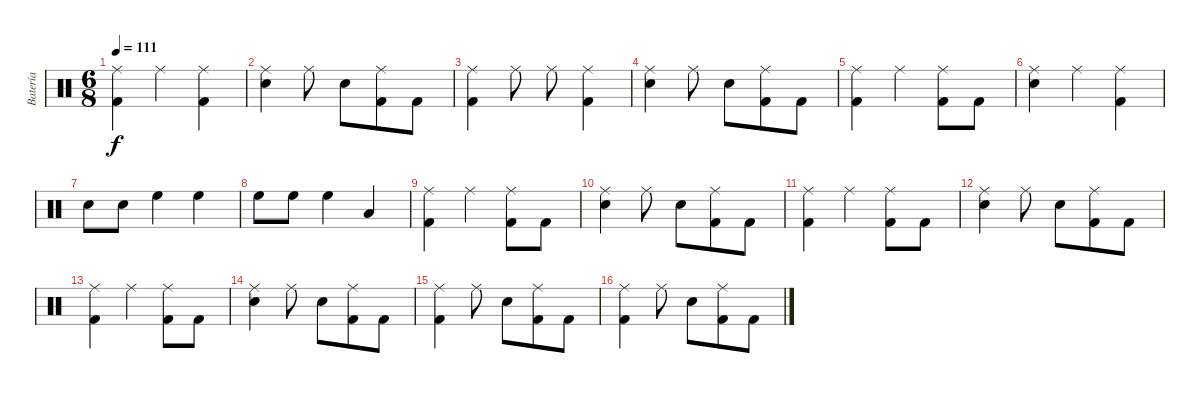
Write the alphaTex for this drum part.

\track ("Batería" "Batería") {instrument percussion}
\staff {score}
\articulation defaults
\ts (6 8)
\tempo 111
\clef neutral
\ks c
("Ride (middle)" "Kick (hit) 2").4{dy f} "Ride (middle)".4 ("Ride (middle)" "Kick (hit) 2").4 |
("Ride (middle)" "Snare (hit) 2").4 "Ride (middle)".8 "Snare (hit) 2".8 ("Ride (middle)" "Kick (hit) 2").8 "Kick (hit) 2".8 |
("Ride (middle)" "Kick (hit) 2").4 "Ride (middle)".8 "Ride (middle)".8 ("Ride (middle)" "Kick (hit) 2").4 |
("Ride (middle)" "Snare (hit) 2").4 "Ride (middle)".8 "Snare (hit) 2".8 ("Ride (middle)" "Kick (hit) 2").8 "Kick (hit) 2".8 |
("Ride (middle)" "Kick (hit) 2").4 "Ride (middle)".4 ("Ride (middle)" "Kick (hit) 2").8 "Kick (hit) 2".8 |
("Ride (middle)" "Snare (hit) 2").4 "Ride (middle)".4 ("Ride (middle)" "Kick (hit) 2").4 |
"Snare (hit) 2".8 "Snare (hit) 2".8 "High Floor Tom (hit)".4 "High Floor Tom (hit)".4 |
"High Floor Tom (hit)".8 "High Floor Tom (hit)".8 "High Floor Tom (hit)".4 "Low Tom (hit)".4 |
("Ride (middle)" "Kick (hit) 2").4 "Ride (middle)".4 ("Ride (middle)" "Kick (hit) 2").8 "Kick (hit) 2".8 |
("Ride (middle)" "Snare (hit) 2").4 "Ride (middle)".8 "Snare (hit) 2".8 ("Ride (middle)" "Kick (hit) 2").8 "Kick (hit) 2".8 |
("Ride (middle)" "Kick (hit) 2").4 "Ride (middle)".4 ("Ride (middle)" "Kick (hit) 2").8 "Kick (hit) 2".8 |
("Ride (middle)" "Snare (hit) 2").4 "Ride (middle)".8 "Snare (hit) 2".8 ("Ride (middle)" "Kick (hit) 2").8 "Kick (hit) 2".8 |
("Ride (middle)" "Kick (hit) 2").4 "Ride (middle)".4 ("Ride (middle)" "Kick (hit) 2").8 "Kick (hit) 2".8 |
("Ride (middle)" "Snare (hit) 2").4 "Ride (middle)".8 "Snare (hit) 2".8 ("Ride (middle)" "Kick (hit) 2").8 "Kick (hit) 2".8 |
("Ride (middle)" "Kick (hit) 2").4 "Ride (middle)".8 "Snare (hit) 2".8 ("Ride (middle)" "Kick (hit) 2").8 "Kick (hit) 2".8 |
("Ride (middle)" "Kick (hit) 2").4 "Ride (middle)".8 "Snare (hit) 2".8 ("Ride (middle)" "Kick (hit) 2").8 "Kick (hit) 2".8
